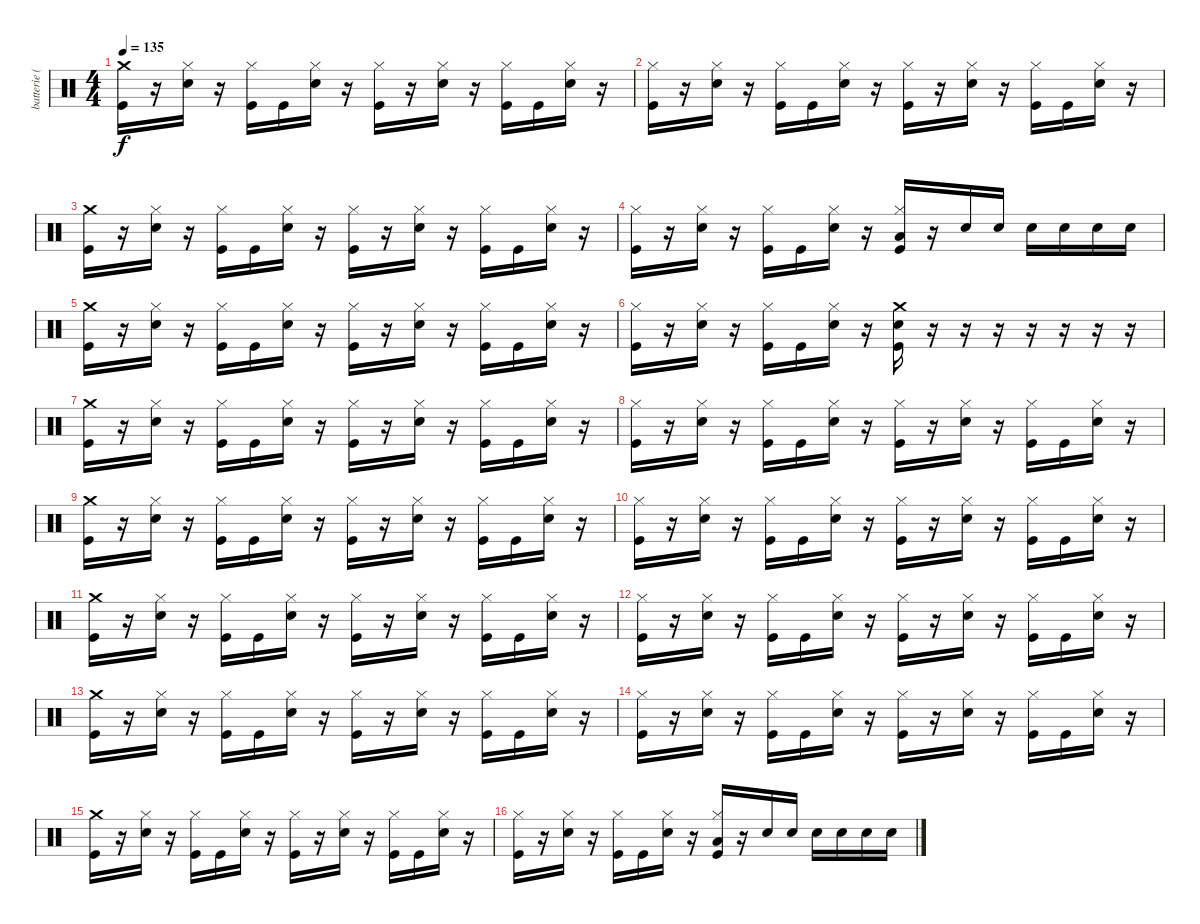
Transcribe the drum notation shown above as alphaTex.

\track ("batterie ( Mathieu )" "batterie (") {instrument percussion}
\staff {score}
\articulation defaults
\ts (4 4)
\tempo 135
\clef neutral
\ks c
("Crash medium (hit)" "Kick (hit)").16{dy f} r.16 ("Hi-Hat (closed)" "Snare (hit) 2").16 r.16 ("Hi-Hat (closed)" "Kick (hit)").16 "Kick (hit)".16 ("Hi-Hat (closed)" "Snare (hit) 2").16 r.16 ("Hi-Hat (closed)" "Kick (hit)").16 r.16 ("Hi-Hat (closed)" "Snare (hit) 2").16 r.16 ("Hi-Hat (closed)" "Kick (hit)").16 "Kick (hit)".16 ("Hi-Hat (closed)" "Snare (hit) 2").16 r.16 |
("Hi-Hat (closed)" "Kick (hit)").16 r.16 ("Hi-Hat (closed)" "Snare (hit) 2").16 r.16 ("Hi-Hat (closed)" "Kick (hit)").16 "Kick (hit)".16 ("Hi-Hat (closed)" "Snare (hit) 2").16 r.16 ("Hi-Hat (closed)" "Kick (hit)").16 r.16 ("Hi-Hat (closed)" "Snare (hit) 2").16 r.16 ("Hi-Hat (closed)" "Kick (hit)").16 "Kick (hit)".16 ("Hi-Hat (closed)" "Snare (hit) 2").16 r.16 |
("Crash medium (hit)" "Kick (hit)").16 r.16 ("Hi-Hat (closed)" "Snare (hit) 2").16 r.16 ("Hi-Hat (closed)" "Kick (hit)").16 "Kick (hit)".16 ("Hi-Hat (closed)" "Snare (hit) 2").16 r.16 ("Hi-Hat (closed)" "Kick (hit)").16 r.16 ("Hi-Hat (closed)" "Snare (hit) 2").16 r.16 ("Hi-Hat (closed)" "Kick (hit)").16 "Kick (hit)".16 ("Hi-Hat (closed)" "Snare (hit) 2").16 r.16 |
("Hi-Hat (closed)" "Kick (hit)").16 r.16 ("Hi-Hat (closed)" "Snare (hit) 2").16 r.16 ("Hi-Hat (closed)" "Kick (hit)").16 "Kick (hit)".16 ("Hi-Hat (closed)" "Snare (hit) 2").16 r.16 ("Hi-Hat (closed)" "Low Floor Tom (hit)" "Kick (hit)").16 r.16 "Snare (hit) 2".16 "Snare (hit) 2".16 "Snare (hit) 2".16 "Snare (hit) 2".16 "Snare (hit) 2".16 "Snare (hit) 2".16 |
("Crash medium (hit)" "Kick (hit)").16 r.16 ("Hi-Hat (closed)" "Snare (hit) 2").16 r.16 ("Hi-Hat (closed)" "Kick (hit)").16 "Kick (hit)".16 ("Hi-Hat (closed)" "Snare (hit) 2").16 r.16 ("Hi-Hat (closed)" "Kick (hit)").16 r.16 ("Hi-Hat (closed)" "Snare (hit) 2").16 r.16 ("Hi-Hat (closed)" "Kick (hit)").16 "Kick (hit)".16 ("Hi-Hat (closed)" "Snare (hit) 2").16 r.16 |
("Hi-Hat (closed)" "Kick (hit)").16 r.16 ("Hi-Hat (closed)" "Snare (hit) 2").16 r.16 ("Hi-Hat (closed)" "Kick (hit)").16 "Kick (hit)".16 ("Hi-Hat (closed)" "Snare (hit) 2").16 r.16 ("Crash medium (hit)" "Snare (hit) 2" "Kick (hit)").16 r.16 r.16 r.16 r.16 r.16 r.16 r.16 |
("Crash medium (hit)" "Kick (hit)").16 r.16 ("Hi-Hat (closed)" "Snare (hit) 2").16 r.16 ("Hi-Hat (closed)" "Kick (hit)").16 "Kick (hit)".16 ("Hi-Hat (closed)" "Snare (hit) 2").16 r.16 ("Hi-Hat (closed)" "Kick (hit)").16 r.16 ("Hi-Hat (closed)" "Snare (hit) 2").16 r.16 ("Hi-Hat (closed)" "Kick (hit)").16 "Kick (hit)".16 ("Hi-Hat (closed)" "Snare (hit) 2").16 r.16 |
("Hi-Hat (closed)" "Kick (hit)").16 r.16 ("Hi-Hat (closed)" "Snare (hit) 2").16 r.16 ("Hi-Hat (closed)" "Kick (hit)").16 "Kick (hit)".16 ("Hi-Hat (closed)" "Snare (hit) 2").16 r.16 ("Hi-Hat (closed)" "Kick (hit)").16 r.16 ("Hi-Hat (closed)" "Snare (hit) 2").16 r.16 ("Hi-Hat (closed)" "Kick (hit)").16 "Kick (hit)".16 ("Hi-Hat (closed)" "Snare (hit) 2").16 r.16 |
("Crash medium (hit)" "Kick (hit)").16 r.16 ("Hi-Hat (closed)" "Snare (hit) 2").16 r.16 ("Hi-Hat (closed)" "Kick (hit)").16 "Kick (hit)".16 ("Hi-Hat (closed)" "Snare (hit) 2").16 r.16 ("Hi-Hat (closed)" "Kick (hit)").16 r.16 ("Hi-Hat (closed)" "Snare (hit) 2").16 r.16 ("Hi-Hat (closed)" "Kick (hit)").16 "Kick (hit)".16 ("Hi-Hat (closed)" "Snare (hit) 2").16 r.16 |
("Hi-Hat (closed)" "Kick (hit)").16 r.16 ("Hi-Hat (closed)" "Snare (hit) 2").16 r.16 ("Hi-Hat (closed)" "Kick (hit)").16 "Kick (hit)".16 ("Hi-Hat (closed)" "Snare (hit) 2").16 r.16 ("Hi-Hat (closed)" "Kick (hit)").16 r.16 ("Hi-Hat (closed)" "Snare (hit) 2").16 r.16 ("Hi-Hat (closed)" "Kick (hit)").16 "Kick (hit)".16 ("Hi-Hat (closed)" "Snare (hit) 2").16 r.16 |
("Crash medium (hit)" "Kick (hit)").16 r.16 ("Hi-Hat (closed)" "Snare (hit) 2").16 r.16 ("Hi-Hat (closed)" "Kick (hit)").16 "Kick (hit)".16 ("Hi-Hat (closed)" "Snare (hit) 2").16 r.16 ("Hi-Hat (closed)" "Kick (hit)").16 r.16 ("Hi-Hat (closed)" "Snare (hit) 2").16 r.16 ("Hi-Hat (closed)" "Kick (hit)").16 "Kick (hit)".16 ("Hi-Hat (closed)" "Snare (hit) 2").16 r.16 |
("Hi-Hat (closed)" "Kick (hit)").16 r.16 ("Hi-Hat (closed)" "Snare (hit) 2").16 r.16 ("Hi-Hat (closed)" "Kick (hit)").16 "Kick (hit)".16 ("Hi-Hat (closed)" "Snare (hit) 2").16 r.16 ("Hi-Hat (closed)" "Kick (hit)").16 r.16 ("Hi-Hat (closed)" "Snare (hit) 2").16 r.16 ("Hi-Hat (closed)" "Kick (hit)").16 "Kick (hit)".16 ("Hi-Hat (closed)" "Snare (hit) 2").16 r.16 |
("Crash medium (hit)" "Kick (hit)").16 r.16 ("Hi-Hat (closed)" "Snare (hit) 2").16 r.16 ("Hi-Hat (closed)" "Kick (hit)").16 "Kick (hit)".16 ("Hi-Hat (closed)" "Snare (hit) 2").16 r.16 ("Hi-Hat (closed)" "Kick (hit)").16 r.16 ("Hi-Hat (closed)" "Snare (hit) 2").16 r.16 ("Hi-Hat (closed)" "Kick (hit)").16 "Kick (hit)".16 ("Hi-Hat (closed)" "Snare (hit) 2").16 r.16 |
("Hi-Hat (closed)" "Kick (hit)").16 r.16 ("Hi-Hat (closed)" "Snare (hit) 2").16 r.16 ("Hi-Hat (closed)" "Kick (hit)").16 "Kick (hit)".16 ("Hi-Hat (closed)" "Snare (hit) 2").16 r.16 ("Hi-Hat (closed)" "Kick (hit)").16 r.16 ("Hi-Hat (closed)" "Snare (hit) 2").16 r.16 ("Hi-Hat (closed)" "Kick (hit)").16 "Kick (hit)".16 ("Hi-Hat (closed)" "Snare (hit) 2").16 r.16 |
("Crash medium (hit)" "Kick (hit)").16 r.16 ("Hi-Hat (closed)" "Snare (hit) 2").16 r.16 ("Hi-Hat (closed)" "Kick (hit)").16 "Kick (hit)".16 ("Hi-Hat (closed)" "Snare (hit) 2").16 r.16 ("Hi-Hat (closed)" "Kick (hit)").16 r.16 ("Hi-Hat (closed)" "Snare (hit) 2").16 r.16 ("Hi-Hat (closed)" "Kick (hit)").16 "Kick (hit)".16 ("Hi-Hat (closed)" "Snare (hit) 2").16 r.16 |
("Hi-Hat (closed)" "Kick (hit)").16 r.16 ("Hi-Hat (closed)" "Snare (hit) 2").16 r.16 ("Hi-Hat (closed)" "Kick (hit)").16 "Kick (hit)".16 ("Hi-Hat (closed)" "Snare (hit) 2").16 r.16 ("Hi-Hat (closed)" "Low Floor Tom (hit)" "Kick (hit)").16 r.16 "Snare (hit) 2".16 "Snare (hit) 2".16 "Snare (hit)".16 "Snare (hit) 2".16 "Snare (hit) 2".16 "Snare (hit) 2".16
